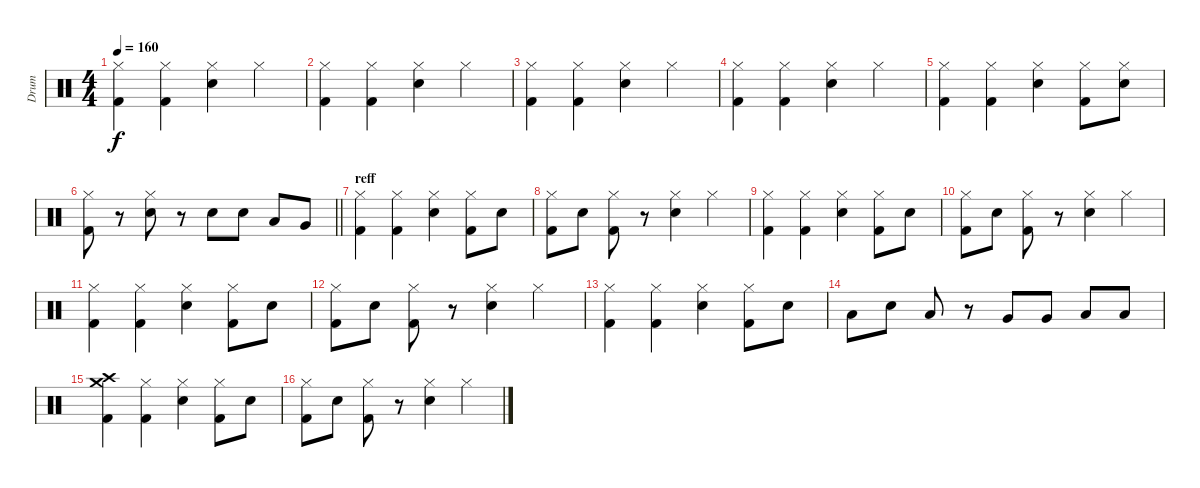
\track ("Drum" "Drum") {instrument percussion}
\staff {score}
\articulation defaults
\ts (4 4)
\tempo 160
\clef neutral
\ks c
("Hi-Hat (closed)" "Kick (hit) 2").4{dy f} ("Hi-Hat (closed)" "Kick (hit) 2").4 ("Hi-Hat (closed)" "Electric Snare (hit)").4 "Hi-Hat (closed)".4 |
("Hi-Hat (closed)" "Kick (hit) 2").4 ("Hi-Hat (closed)" "Kick (hit) 2").4 ("Hi-Hat (closed)" "Electric Snare (hit)").4 "Hi-Hat (closed)".4 |
("Hi-Hat (closed)" "Kick (hit) 2").4 ("Hi-Hat (closed)" "Kick (hit) 2").4 ("Hi-Hat (closed)" "Electric Snare (hit)").4 "Hi-Hat (closed)".4 |
("Hi-Hat (closed)" "Kick (hit) 2").4 ("Hi-Hat (closed)" "Kick (hit) 2").4 ("Hi-Hat (closed)" "Electric Snare (hit)").4 "Hi-Hat (closed)".4 |
("Hi-Hat (closed)" "Kick (hit) 2").4 ("Hi-Hat (closed)" "Kick (hit) 2").4 ("Hi-Hat (closed)" "Electric Snare (hit)").4 ("Hi-Hat (closed)" "Kick (hit) 2").8 ("Hi-Hat (closed)" "Electric Snare (hit)").8 |
\barLineRight lightlight
("Hi-Hat (closed)" "Kick (hit) 2").8 r.8 ("Hi-Hat (closed)" "Electric Snare (hit)").8 r.8 "Electric Snare (hit)".8 "Electric Snare (hit)".8 "Low Floor Tom (hit)".8 "Very Low Tom (hit)".8 |
\section ("" "reff")
("Hi-Hat (closed)" "Kick (hit) 2").4 ("Hi-Hat (closed)" "Kick (hit) 2").4 ("Hi-Hat (closed)" "Electric Snare (hit)").4 ("Hi-Hat (closed)" "Kick (hit) 2").8 "Electric Snare (hit)".8 |
("Hi-Hat (closed)" "Kick (hit) 2").8 "Electric Snare (hit)".8 ("Hi-Hat (closed)" "Kick (hit) 2").8 r.8 ("Hi-Hat (closed)" "Electric Snare (hit)").4 "Hi-Hat (closed)".4 |
("Hi-Hat (closed)" "Kick (hit) 2").4 ("Hi-Hat (closed)" "Kick (hit) 2").4 ("Hi-Hat (closed)" "Electric Snare (hit)").4 ("Hi-Hat (closed)" "Kick (hit) 2").8 "Electric Snare (hit)".8 |
("Hi-Hat (closed)" "Kick (hit) 2").8 "Electric Snare (hit)".8 ("Hi-Hat (closed)" "Kick (hit) 2").8 r.8 ("Hi-Hat (closed)" "Electric Snare (hit)").4 "Hi-Hat (closed)".4 |
("Hi-Hat (closed)" "Kick (hit) 2").4 ("Hi-Hat (closed)" "Kick (hit) 2").4 ("Hi-Hat (closed)" "Electric Snare (hit)").4 ("Hi-Hat (closed)" "Kick (hit) 2").8 "Electric Snare (hit)".8 |
("Hi-Hat (closed)" "Kick (hit) 2").8 "Electric Snare (hit)".8 ("Hi-Hat (closed)" "Kick (hit) 2").8 r.8 ("Hi-Hat (closed)" "Electric Snare (hit)").4 "Hi-Hat (closed)".4 |
("Hi-Hat (closed)" "Kick (hit) 2").4 ("Hi-Hat (closed)" "Kick (hit) 2").4 ("Hi-Hat (closed)" "Electric Snare (hit)").4 ("Hi-Hat (closed)" "Kick (hit) 2").8 "Electric Snare (hit)".8 |
"Low Floor Tom (hit)".8 "Electric Snare (hit)".8 "Low Floor Tom (hit)".8 r.8 "Very Low Tom (hit)".8 "Very Low Tom (hit)".8 "Low Tom (hit)".8 "Low Tom (hit)".8 |
("Crash high (hit)" "Crash medium (hit)" "Kick (hit) 2").4 ("Hi-Hat (closed)" "Kick (hit) 2").4 ("Hi-Hat (closed)" "Electric Snare (hit)").4 ("Hi-Hat (closed)" "Kick (hit) 2").8 "Electric Snare (hit)".8 |
("Hi-Hat (closed)" "Kick (hit) 2").8 "Electric Snare (hit)".8 ("Hi-Hat (closed)" "Kick (hit) 2").8 r.8 ("Hi-Hat (closed)" "Electric Snare (hit)").4 "Hi-Hat (closed)".4
